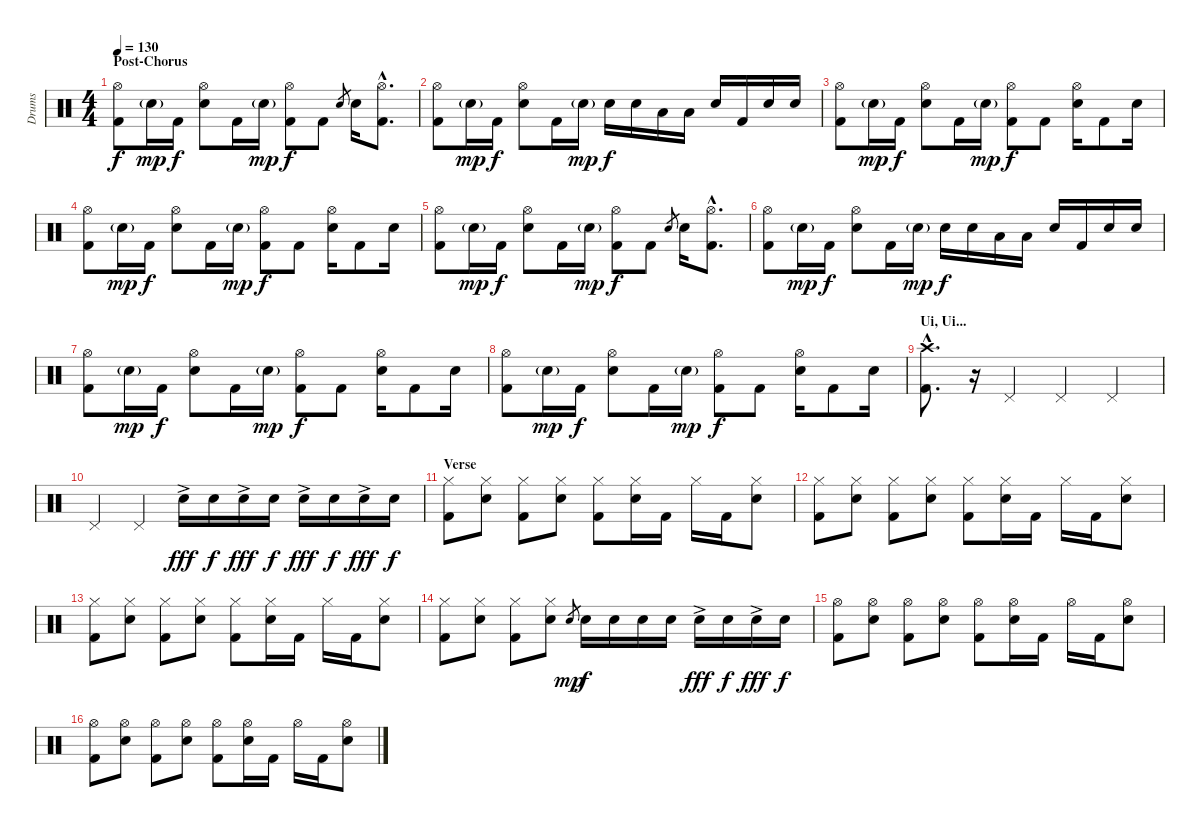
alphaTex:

\track ("Drums" "Drums") {instrument percussion}
\staff {score}
\articulation defaults
\ts (4 4)
\section ("" "Post-Chorus")
\tempo 130
\clef neutral
\ks c
("Hi-Hat (open)" "Kick (hit) 2").8{dy f} "Snare (hit) 2"{g}.16{dy mp} "Kick (hit) 2".16{dy f} ("Hi-Hat (open)" "Snare (hit) 2").8 "Kick (hit) 2".16 "Snare (hit) 2"{g}.16{dy mp} ("Hi-Hat (open)" "Kick (hit) 2").8{dy f} "Kick (hit) 2".8 "Snare (hit) 2".8{gr} "Snare (hit) 2".16 ("Hi-Hat (open)"{hac} "Kick (hit) 2"{hac}).8{d} |
("Hi-Hat (open)" "Kick (hit) 2").8 "Snare (hit) 2"{g}.16{dy mp} "Kick (hit) 2".16{dy f} ("Hi-Hat (open)" "Snare (hit) 2").8 "Kick (hit) 2".16 "Snare (hit) 2"{g}.16{dy mp} "Snare (hit) 2".16{dy f} "Snare (hit) 2".16 "Low Tom (hit)".16 "Low Floor Tom (hit)".16 "Snare (hit) 2".16 "Kick (hit) 2".16 "Snare (hit) 2".16 "Snare (hit) 2".16 |
("Hi-Hat (open)" "Kick (hit) 2").8 "Snare (hit) 2"{g}.16{dy mp} "Kick (hit) 2".16{dy f} ("Hi-Hat (open)" "Snare (hit) 2").8 "Kick (hit) 2".16 "Snare (hit) 2"{g}.16{dy mp} ("Hi-Hat (open)" "Kick (hit) 2").8{dy f} "Kick (hit) 2".8 ("Hi-Hat (open)" "Snare (hit) 2").16 "Kick (hit) 2".8 "Snare (hit) 2".16 |
("Hi-Hat (open)" "Kick (hit) 2").8 "Snare (hit) 2"{g}.16{dy mp} "Kick (hit) 2".16{dy f} ("Hi-Hat (open)" "Snare (hit) 2").8 "Kick (hit) 2".16 "Snare (hit) 2"{g}.16{dy mp} ("Hi-Hat (open)" "Kick (hit) 2").8{dy f} "Kick (hit) 2".8 ("Hi-Hat (open)" "Snare (hit) 2").16 "Kick (hit) 2".8 "Snare (hit) 2".16 |
("Hi-Hat (open)" "Kick (hit) 2").8 "Snare (hit) 2"{g}.16{dy mp} "Kick (hit) 2".16{dy f} ("Hi-Hat (open)" "Snare (hit) 2").8 "Kick (hit) 2".16 "Snare (hit) 2"{g}.16{dy mp} ("Hi-Hat (open)" "Kick (hit) 2").8{dy f} "Kick (hit) 2".8 "Snare (hit) 2".8{gr} "Snare (hit) 2".16 ("Hi-Hat (open)"{hac} "Kick (hit) 2"{hac}).8{d} |
("Hi-Hat (open)" "Kick (hit) 2").8 "Snare (hit) 2"{g}.16{dy mp} "Kick (hit) 2".16{dy f} ("Hi-Hat (open)" "Snare (hit) 2").8 "Kick (hit) 2".16 "Snare (hit) 2"{g}.16{dy mp} "Snare (hit) 2".16{dy f} "Snare (hit) 2".16 "Low Tom (hit)".16 "Low Floor Tom (hit)".16 "Snare (hit) 2".16 "Kick (hit) 2".16 "Snare (hit) 2".16 "Snare (hit) 2".16 |
("Hi-Hat (open)" "Kick (hit) 2").8 "Snare (hit) 2"{g}.16{dy mp} "Kick (hit) 2".16{dy f} ("Hi-Hat (open)" "Snare (hit) 2").8 "Kick (hit) 2".16 "Snare (hit) 2"{g}.16{dy mp} ("Hi-Hat (open)" "Kick (hit) 2").8{dy f} "Kick (hit) 2".8 ("Hi-Hat (open)" "Snare (hit) 2").16 "Kick (hit) 2".8 "Snare (hit) 2".16 |
("Hi-Hat (open)" "Kick (hit) 2").8 "Snare (hit) 2"{g}.16{dy mp} "Kick (hit) 2".16{dy f} ("Hi-Hat (open)" "Snare (hit) 2").8 "Kick (hit) 2".16 "Snare (hit) 2"{g}.16{dy mp} ("Hi-Hat (open)" "Kick (hit) 2").8{dy f} "Kick (hit) 2".8 ("Hi-Hat (open)" "Snare (hit) 2").16 "Kick (hit) 2".8 "Snare (hit) 2".16 |
\section ("" "Ui, Ui...")
("Crash high (hit)"{hac} "Kick (hit) 2"{hac}).8{d} r.16 "Pedal Hi-Hat (hit)".4 "Pedal Hi-Hat (hit)".4 "Pedal Hi-Hat (hit)".4 |
"Pedal Hi-Hat (hit)".4 "Pedal Hi-Hat (hit)".4 "Snare (hit) 2"{ac}.16{dy fff} "Snare (hit) 2".16{dy f} "Snare (hit) 2"{ac}.16{dy fff} "Snare (hit) 2".16{dy f} "Snare (hit) 2"{ac}.16{dy fff} "Snare (hit) 2".16{dy f} "Snare (hit) 2"{ac}.16{dy fff} "Snare (hit) 2".16{dy f} |
\section ("" "Verse")
("Hi-Hat (closed)" "Kick (hit) 2").8 ("Hi-Hat (closed)" "Snare (hit) 2").8 ("Hi-Hat (closed)" "Kick (hit) 2").8 ("Hi-Hat (closed)" "Snare (hit) 2").8 ("Hi-Hat (closed)" "Kick (hit) 2").8 ("Hi-Hat (closed)" "Snare (hit) 2").16 "Kick (hit) 2".16 "Hi-Hat (closed)".16 "Kick (hit) 2".16 ("Hi-Hat (closed)" "Snare (hit) 2").8 |
("Hi-Hat (closed)" "Kick (hit) 2").8 ("Hi-Hat (closed)" "Snare (hit) 2").8 ("Hi-Hat (closed)" "Kick (hit) 2").8 ("Hi-Hat (closed)" "Snare (hit) 2").8 ("Hi-Hat (closed)" "Kick (hit) 2").8 ("Hi-Hat (closed)" "Snare (hit) 2").16 "Kick (hit) 2".16 "Hi-Hat (closed)".16 "Kick (hit) 2".16 ("Hi-Hat (closed)" "Snare (hit) 2").8 |
("Hi-Hat (closed)" "Kick (hit) 2").8 ("Hi-Hat (closed)" "Snare (hit) 2").8 ("Hi-Hat (closed)" "Kick (hit) 2").8 ("Hi-Hat (closed)" "Snare (hit) 2").8 ("Hi-Hat (closed)" "Kick (hit) 2").8 ("Hi-Hat (closed)" "Snare (hit) 2").16 "Kick (hit) 2".16 "Hi-Hat (closed)".16 "Kick (hit) 2".16 ("Hi-Hat (closed)" "Snare (hit) 2").8 |
("Hi-Hat (closed)" "Kick (hit) 2").8 ("Hi-Hat (closed)" "Snare (hit) 2").8 ("Hi-Hat (closed)" "Kick (hit) 2").8 ("Hi-Hat (closed)" "Snare (hit) 2").8 "Snare (hit) 2".8{gr dy mp} "Snare (hit) 2".16{dy f} "Snare (hit) 2".16 "Snare (hit) 2".16 "Snare (hit) 2".16 "Snare (hit) 2"{ac}.16{dy fff} "Snare (hit) 2".16{dy f} "Snare (hit) 2"{ac}.16{dy fff} "Snare (hit) 2".16{dy f} |
("Hi-Hat (open)" "Kick (hit) 2").8 ("Hi-Hat (open)" "Snare (hit) 2").8 ("Hi-Hat (open)" "Kick (hit) 2").8 ("Hi-Hat (open)" "Snare (hit) 2").8 ("Hi-Hat (open)" "Kick (hit) 2").8 ("Hi-Hat (open)" "Snare (hit) 2").16 "Kick (hit) 2".16 "Hi-Hat (open)".16 "Kick (hit) 2".16 ("Hi-Hat (open)" "Snare (hit) 2").8 |
("Hi-Hat (open)" "Kick (hit) 2").8 ("Hi-Hat (open)" "Snare (hit) 2").8 ("Hi-Hat (open)" "Kick (hit) 2").8 ("Hi-Hat (open)" "Snare (hit) 2").8 ("Hi-Hat (open)" "Kick (hit) 2").8 ("Hi-Hat (open)" "Snare (hit) 2").16 "Kick (hit) 2".16 "Hi-Hat (open)".16 "Kick (hit) 2".16 ("Hi-Hat (open)" "Snare (hit) 2").8
